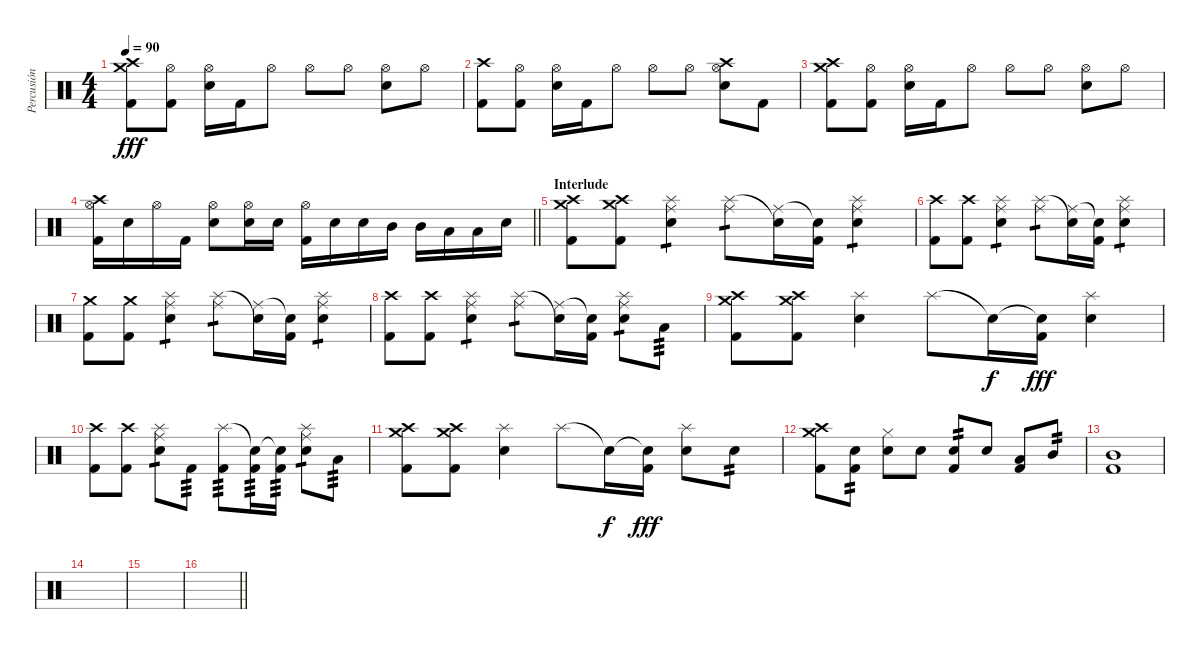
\track ("Percusión" "Percusión") {instrument percussion}
\staff {score}
\articulation defaults
\ts (4 4)
\tempo 90
\clef neutral
\ks c
("Crash medium (hit)" "Crash high (hit)" "Kick (hit) 2").8{dy fff} ("Hi-Hat (open)" "Kick (hit) 2").8 ("Hi-Hat (open)" "Electric Snare (hit)").16 "Kick (hit) 2".16 "Hi-Hat (open)".8 "Hi-Hat (open)".8 "Hi-Hat (open)".8 ("Hi-Hat (open)" "Electric Snare (hit)").8 "Hi-Hat (open)".8 |
("Crash high (hit)" "Kick (hit) 2").8 ("Hi-Hat (open)" "Kick (hit) 2").8 ("Hi-Hat (open)" "Electric Snare (hit)").16 "Kick (hit) 2".16 "Hi-Hat (open)".8 "Hi-Hat (open)".8 "Hi-Hat (open)".8 ("Crash high (hit)" "Hi-Hat (open)" "Electric Snare (hit)").8 "Kick (hit) 2".8 |
("Crash medium (hit)" "Crash high (hit)" "Kick (hit) 2").8 ("Hi-Hat (open)" "Kick (hit) 2").8 ("Hi-Hat (open)" "Electric Snare (hit)").16 "Kick (hit) 2".16 "Hi-Hat (open)".8 "Hi-Hat (open)".8 "Hi-Hat (open)".8 ("Hi-Hat (open)" "Electric Snare (hit)").8 "Hi-Hat (open)".8 |
\barLineRight lightlight
("Crash high (hit)" "Hi-Hat (open)" "Kick (hit) 2").16 "Electric Snare (hit)".16 "Hi-Hat (open)".16 "Kick (hit) 2".16 ("Hi-Hat (open)" "Electric Snare (hit)").8 ("Hi-Hat (open)" "Electric Snare (hit)").16 "Electric Snare (hit)".16 ("Hi-Hat (open)" "Kick (hit) 2").16 "Electric Snare (hit)".16 "Electric Snare (hit)".16 "Mid Tom (hit)".16 "Mid Tom (hit)".16 "Low Tom (hit)".16 "Low Tom (hit)".16 "Electric Snare (hit)".16 |
\section ("" "Interlude")
("Crash medium (hit)" "Crash high (hit)" "Kick (hit) 2").8 ("Crash medium (hit)" "Crash high (hit)" "Kick (hit) 2").8 ("Ride (middle)" "Splash (hit)" "Electric Snare (hit)").4{tp 1} ("Ride (middle)" "Splash (hit)").8{tp 1} ("Ride (middle)" "Snare (hit)"{t}).16 ("Snare (hit)"{t} "Kick (hit) 2").16 ("Ride (middle)" "Splash (hit)" "Electric Snare (hit)").4{tp 1} |
("Crash high (hit)" "Kick (hit) 2").8 ("Crash high (hit)" "Kick (hit) 2").8 ("Ride (middle)" "Splash (hit)" "Electric Snare (hit)").4{tp 1} ("Ride (middle)" "Splash (hit)").8{tp 1} ("Ride (middle)" "Snare (hit)"{t}).16 ("Snare (hit)"{t} "Kick (hit) 2").16 ("Ride (middle)" "Splash (hit)" "Electric Snare (hit)").4{tp 1} |
("Crash medium (hit)" "Kick (hit) 2").8 ("Crash medium (hit)" "Kick (hit) 2").8 ("Ride (middle)" "Splash (hit)" "Electric Snare (hit)").4{tp 1} ("Ride (middle)" "Splash (hit)").8{tp 1} ("Ride (middle)" "Snare (hit)"{t}).16 ("Snare (hit)"{t} "Kick (hit) 2").16 ("Ride (middle)" "Splash (hit)" "Electric Snare (hit)").4{tp 1} |
("Crash high (hit)" "Kick (hit) 2").8 ("Crash high (hit)" "Kick (hit) 2").8 ("Ride (middle)" "Splash (hit)" "Electric Snare (hit)").4{tp 1} ("Ride (middle)" "Splash (hit)").8{tp 1} ("Ride (middle)" "Snare (hit)"{t}).16 ("Snare (hit)"{t} "Kick (hit) 2").16 ("Ride (middle)" "Splash (hit)" "Electric Snare (hit)").8{tp 1} "Low Tom (hit)".8{tp 3} |
("Crash medium (hit)" "Crash high (hit)" "Kick (hit) 2").8 ("Crash medium (hit)" "Crash high (hit)" "Kick (hit) 2").8 ("Splash (hit)" "Electric Snare (hit)").4 "Splash (hit)".8 "Snare (hit)"{t}.16{dy f} ("Snare (hit)"{t} "Kick (hit) 2").16{dy fff} ("Splash (hit)" "Electric Snare (hit)").4 |
("Crash high (hit)" "Kick (hit) 2").8 ("Crash high (hit)" "Kick (hit) 2").8 ("Ride (middle)" "Splash (hit)" "Electric Snare (hit)").8{tp 1} "Kick (hit) 2".8{tp 3} ("Splash (hit)" "Kick (hit) 2").8{tp 3} ("Snare (hit)"{t} "Kick (hit) 2").16{tp 3} ("Snare (hit)"{t} "Kick (hit) 2").16{tp 3} ("Ride (middle)" "Splash (hit)" "Electric Snare (hit)").8{tp 1} "Low Tom (hit)".8{tp 3} |
("Crash medium (hit)" "Crash high (hit)" "Kick (hit) 2").8 ("Crash medium (hit)" "Crash high (hit)" "Kick (hit) 2").8 ("Splash (hit)" "Electric Snare (hit)").4 "Splash (hit)".8 "Snare (hit)"{t}.16{dy f} ("Snare (hit)"{t} "Kick (hit) 2").16{dy fff} ("Splash (hit)" "Electric Snare (hit)").8 "Electric Snare (hit)".8{tp 2} |
("Crash medium (hit)" "Crash high (hit)" "Kick (hit) 2").8 ("Electric Snare (hit)" "Kick (hit) 2").8{tp 2} ("Hi-Hat (closed)" "Electric Snare (hit)").8 "Electric Snare (hit)".8 ("Electric Snare (hit)" "Kick (hit) 2").8{tp 2} "Electric Snare (hit)".8 ("Low Tom (hit)" "Kick (hit) 2").8 "Mid Tom (hit)".8{tp 2} |
("Mid Tom (hit)" "Kick (hit) 2").1 |
|
|
\barLineRight lightlight
